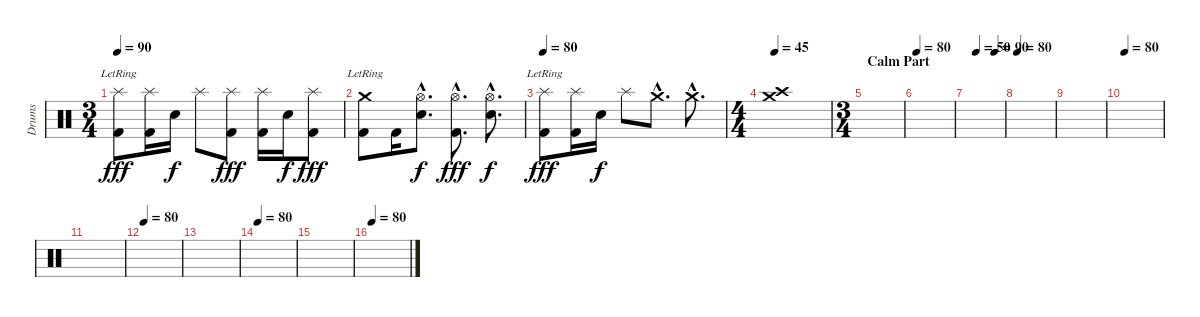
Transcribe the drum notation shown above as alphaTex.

\track ("Drums" "Drums") {instrument percussion}
\staff {score}
\articulation defaults
\ts (3 4)
\tempo 90
\clef neutral
\ks c
("Splash (hit)"{lr} "Kick (hit) 2").8{dy fff} ("Splash (hit)" "Kick (hit) 2").16 "Snare (hit) 2".16{dy f} "Splash (hit)".8 ("Splash (hit)" "Kick (hit) 2").8{dy fff} ("Splash (hit)" "Kick (hit) 2").16 "Snare (hit) 2".16{dy f} ("Splash (hit)" "Kick (hit) 2").8{dy fff} |
("Crash medium (hit)"{lr} "Kick (hit) 2").8 "Kick (hit) 2".16 ("Hi-Hat (open)"{hac} "Snare (hit) 2"{hac}).8{d dy f} ("Hi-Hat (open)"{hac} "Kick (hit) 2"{hac}).8{d dy fff} ("Hi-Hat (open)"{hac} "Snare (hit) 2"{hac}).8{d dy f} |
\tempo 80
("Splash (hit)"{lr} "Kick (hit) 2").8{dy fff} ("Splash (hit)" "Kick (hit) 2").16 "Snare (hit) 2".16{dy f} "Splash (hit)".8 "Crash medium (hit)"{hac}.8{d} "Crash medium (hit)"{hac}.8{d} |
\ts (4 4)
\tempo 45
("Crash high (hit)" "Crash medium (hit)").1 |
\ts (3 4)
\section ("" "Calm Part")
|
\tempo 80
|
\tempo (50 0.25)
\tempo (90 0.75)
|
\tempo 80
|
|
\tempo 80
|
|
\tempo 80
|
|
\tempo 80
|
|
\tempo 80
